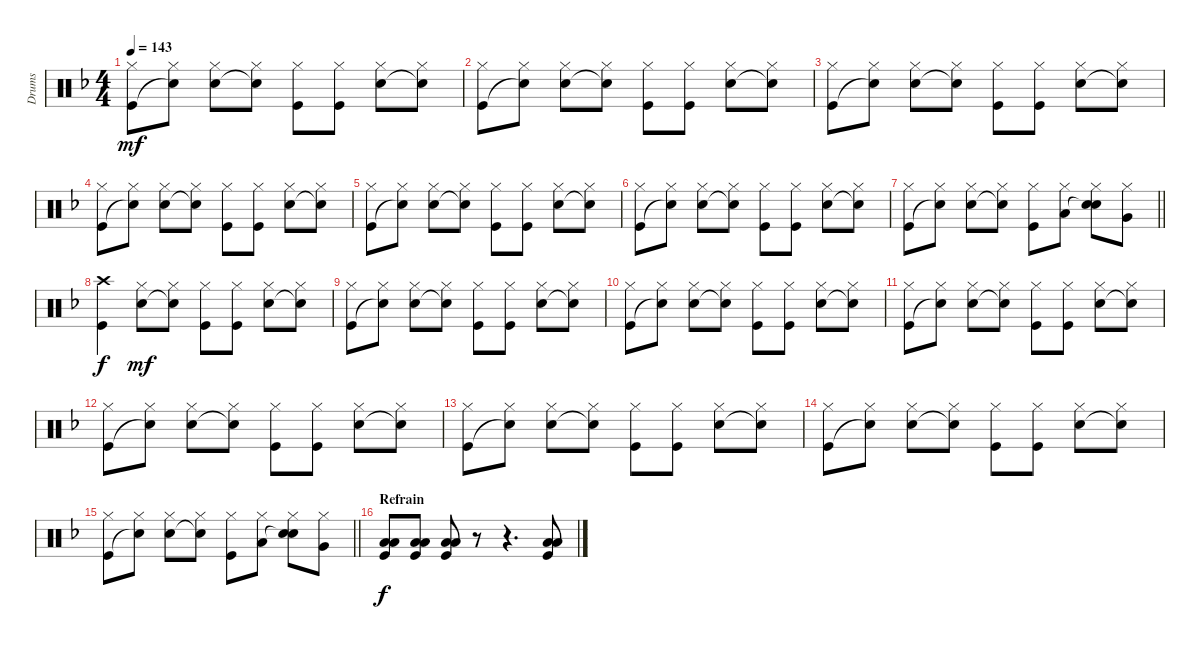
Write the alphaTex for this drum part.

\track ("Drums" "Drums") {instrument percussion}
\staff {score}
\articulation defaults
\ts (4 4)
\tempo 143
\clef neutral
\ks f
("Hi-Hat (closed)" "Kick (hit)").8{dy mf} ("Hi-Hat (closed)" "Snare (hit)"{t}).8 ("Hi-Hat (closed)" "Electric Snare (hit)").8 ("Hi-Hat (closed)" "Snare (hit)"{t}).8 ("Hi-Hat (closed)" "Kick (hit)").8 ("Hi-Hat (closed)" "Kick (hit)").8 ("Hi-Hat (closed)" "Electric Snare (hit)").8 ("Hi-Hat (closed)" "Snare (hit)"{t}).8 |
("Hi-Hat (closed)" "Kick (hit)").8 ("Hi-Hat (closed)" "Snare (hit)"{t}).8 ("Hi-Hat (closed)" "Electric Snare (hit)").8 ("Hi-Hat (closed)" "Snare (hit)"{t}).8 ("Hi-Hat (closed)" "Kick (hit)").8 ("Hi-Hat (closed)" "Kick (hit)").8 ("Hi-Hat (closed)" "Electric Snare (hit)").8 ("Hi-Hat (closed)" "Snare (hit)"{t}).8 |
("Hi-Hat (closed)" "Kick (hit)").8 ("Hi-Hat (closed)" "Snare (hit)"{t}).8 ("Hi-Hat (closed)" "Electric Snare (hit)").8 ("Hi-Hat (closed)" "Snare (hit)"{t}).8 ("Hi-Hat (closed)" "Kick (hit)").8 ("Hi-Hat (closed)" "Kick (hit)").8 ("Hi-Hat (closed)" "Electric Snare (hit)").8 ("Hi-Hat (closed)" "Snare (hit)"{t}).8 |
("Hi-Hat (closed)" "Kick (hit)").8 ("Hi-Hat (closed)" "Snare (hit)"{t}).8 ("Hi-Hat (closed)" "Electric Snare (hit)").8 ("Hi-Hat (closed)" "Snare (hit)"{t}).8 ("Hi-Hat (closed)" "Kick (hit)").8 ("Hi-Hat (closed)" "Kick (hit)").8 ("Hi-Hat (closed)" "Electric Snare (hit)").8 ("Hi-Hat (closed)" "Snare (hit)"{t}).8 |
("Hi-Hat (closed)" "Kick (hit)").8 ("Hi-Hat (closed)" "Snare (hit)"{t}).8 ("Hi-Hat (closed)" "Electric Snare (hit)").8 ("Hi-Hat (closed)" "Snare (hit)"{t}).8 ("Hi-Hat (closed)" "Kick (hit)").8 ("Hi-Hat (closed)" "Kick (hit)").8 ("Hi-Hat (closed)" "Electric Snare (hit)").8 ("Hi-Hat (closed)" "Snare (hit)"{t}).8 |
("Hi-Hat (closed)" "Kick (hit)").8 ("Hi-Hat (closed)" "Snare (hit)"{t}).8 ("Hi-Hat (closed)" "Electric Snare (hit)").8 ("Hi-Hat (closed)" "Snare (hit)"{t}).8 ("Hi-Hat (closed)" "Kick (hit)").8 ("Hi-Hat (closed)" "Kick (hit)").8 ("Hi-Hat (closed)" "Electric Snare (hit)").8 ("Hi-Hat (closed)" "Snare (hit)"{t}).8 |
\barLineRight lightlight
("Hi-Hat (closed)" "Kick (hit)").8 ("Hi-Hat (closed)" "Snare (hit)"{t}).8 ("Hi-Hat (closed)" "Electric Snare (hit)").8 ("Hi-Hat (closed)" "Snare (hit)"{t}).8 ("Hi-Hat (closed)" "Kick (hit)").8 ("Hi-Hat (closed)" "Low Tom (hit)").8 ("Hi-Hat (closed)" "Snare (hit)"{t} "Electric Snare (hit)").8 ("Hi-Hat (closed)" "Very Low Tom (hit)").8 |
("Crash high (hit)" "Kick (hit)").4{dy f} ("Hi-Hat (closed)" "Electric Snare (hit)").8{dy mf} ("Hi-Hat (closed)" "Snare (hit)"{t}).8 ("Hi-Hat (closed)" "Kick (hit)").8 ("Hi-Hat (closed)" "Kick (hit)").8 ("Hi-Hat (closed)" "Electric Snare (hit)").8 ("Hi-Hat (closed)" "Snare (hit)"{t}).8 |
("Hi-Hat (closed)" "Kick (hit)").8 ("Hi-Hat (closed)" "Snare (hit)"{t}).8 ("Hi-Hat (closed)" "Electric Snare (hit)").8 ("Hi-Hat (closed)" "Snare (hit)"{t}).8 ("Hi-Hat (closed)" "Kick (hit)").8 ("Hi-Hat (closed)" "Kick (hit)").8 ("Hi-Hat (closed)" "Electric Snare (hit)").8 ("Hi-Hat (closed)" "Snare (hit)"{t}).8 |
("Hi-Hat (closed)" "Kick (hit)").8 ("Hi-Hat (closed)" "Snare (hit)"{t}).8 ("Hi-Hat (closed)" "Electric Snare (hit)").8 ("Hi-Hat (closed)" "Snare (hit)"{t}).8 ("Hi-Hat (closed)" "Kick (hit)").8 ("Hi-Hat (closed)" "Kick (hit)").8 ("Hi-Hat (closed)" "Electric Snare (hit)").8 ("Hi-Hat (closed)" "Snare (hit)"{t}).8 |
("Hi-Hat (closed)" "Kick (hit)").8 ("Hi-Hat (closed)" "Snare (hit)"{t}).8 ("Hi-Hat (closed)" "Electric Snare (hit)").8 ("Hi-Hat (closed)" "Snare (hit)"{t}).8 ("Hi-Hat (closed)" "Kick (hit)").8 ("Hi-Hat (closed)" "Kick (hit)").8 ("Hi-Hat (closed)" "Electric Snare (hit)").8 ("Hi-Hat (closed)" "Snare (hit)"{t}).8 |
("Hi-Hat (closed)" "Kick (hit)").8 ("Hi-Hat (closed)" "Snare (hit)"{t}).8 ("Hi-Hat (closed)" "Electric Snare (hit)").8 ("Hi-Hat (closed)" "Snare (hit)"{t}).8 ("Hi-Hat (closed)" "Kick (hit)").8 ("Hi-Hat (closed)" "Kick (hit)").8 ("Hi-Hat (closed)" "Electric Snare (hit)").8 ("Hi-Hat (closed)" "Snare (hit)"{t}).8 |
("Hi-Hat (closed)" "Kick (hit)").8 ("Hi-Hat (closed)" "Snare (hit)"{t}).8 ("Hi-Hat (closed)" "Electric Snare (hit)").8 ("Hi-Hat (closed)" "Snare (hit)"{t}).8 ("Hi-Hat (closed)" "Kick (hit)").8 ("Hi-Hat (closed)" "Kick (hit)").8 ("Hi-Hat (closed)" "Electric Snare (hit)").8 ("Hi-Hat (closed)" "Snare (hit)"{t}).8 |
("Hi-Hat (closed)" "Kick (hit)").8 ("Hi-Hat (closed)" "Snare (hit)"{t}).8 ("Hi-Hat (closed)" "Electric Snare (hit)").8 ("Hi-Hat (closed)" "Snare (hit)"{t}).8 ("Hi-Hat (closed)" "Kick (hit)").8 ("Hi-Hat (closed)" "Kick (hit)").8 ("Hi-Hat (closed)" "Electric Snare (hit)").8 ("Hi-Hat (closed)" "Snare (hit)"{t}).8 |
\barLineRight lightlight
("Hi-Hat (closed)" "Kick (hit)").8 ("Hi-Hat (closed)" "Snare (hit)"{t}).8 ("Hi-Hat (closed)" "Electric Snare (hit)").8 ("Hi-Hat (closed)" "Snare (hit)"{t}).8 ("Hi-Hat (closed)" "Kick (hit)").8 ("Hi-Hat (closed)" "Low Tom (hit)").8 ("Hi-Hat (closed)" "Snare (hit)"{t} "Electric Snare (hit)").8 ("Hi-Hat (closed)" "Very Low Tom (hit)").8 |
\section ("" "Refrain")
("Low Floor Tom (hit)" "Low Tom (hit)" "Kick (hit)").8{dy f} ("Low Floor Tom (hit)" "Low Tom (hit)" "Kick (hit)").8 ("Low Floor Tom (hit)" "Low Tom (hit)" "Kick (hit)").8 r.8 r.4{d} ("Low Floor Tom (hit)" "Low Tom (hit)" "Kick (hit)").8
